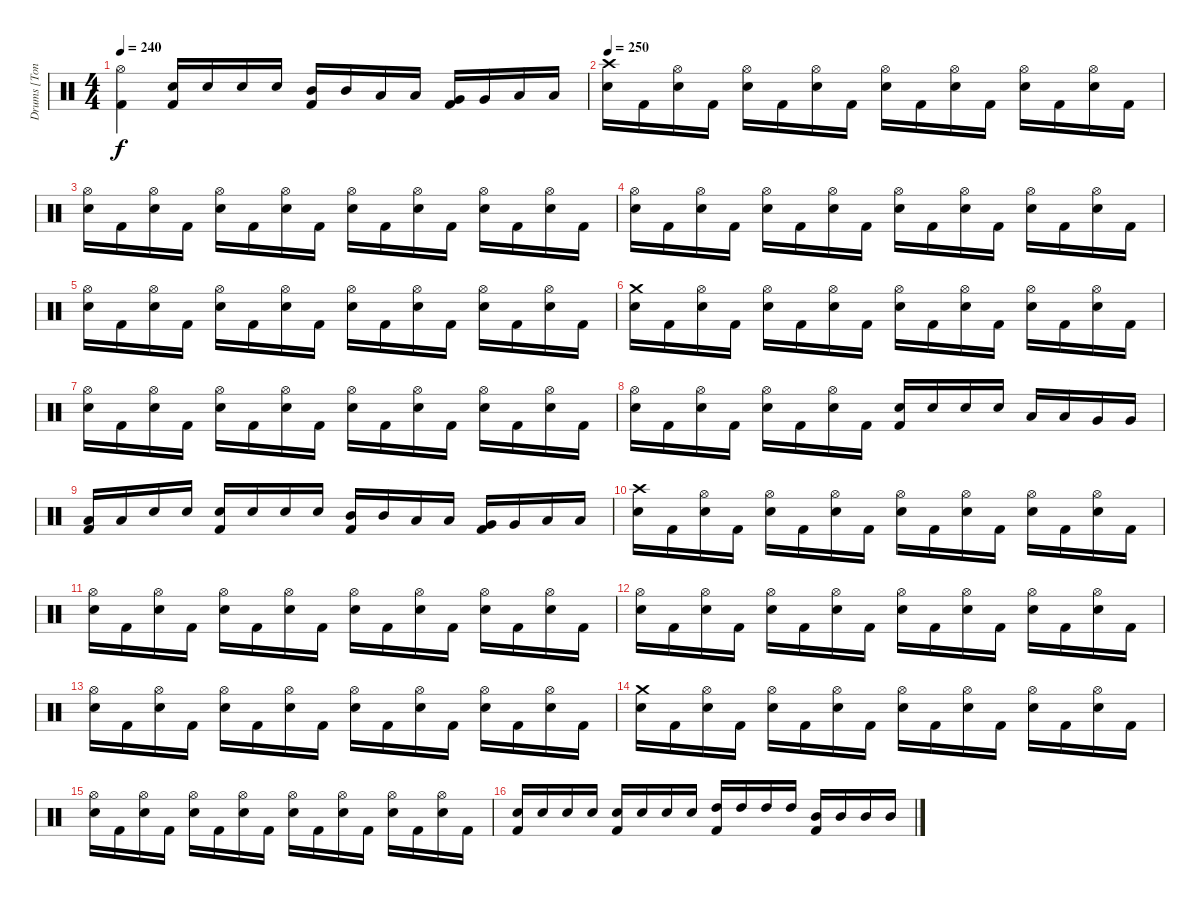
\track ("Drums [Tony Laureano]" "Drums [Ton") {instrument percussion}
\staff {score}
\articulation defaults
\ts (4 4)
\tempo 240
\clef neutral
\ks c
("Hi-Hat (open)" "Kick (hit) 2").4{dy f} ("Electric Snare (hit)" "Kick (hit) 2").16 "Electric Snare (hit)".16 "Electric Snare (hit)".16 "Electric Snare (hit)".16 ("Mid Tom (hit)" "Kick (hit) 2").16 "Mid Tom (hit)".16 "Low Tom (hit)".16 "Low Tom (hit)".16 ("Very Low Tom (hit)" "Kick (hit) 2").16 "Very Low Tom (hit)".16 "Low Floor Tom (hit)".16 "Low Floor Tom (hit)".16 |
\tempo 250
("Crash high (hit)" "Electric Snare (hit)").16 "Kick (hit) 2".16 ("Hi-Hat (open)" "Electric Snare (hit)").16 "Kick (hit) 2".16 ("Hi-Hat (open)" "Electric Snare (hit)").16 "Kick (hit) 2".16 ("Hi-Hat (open)" "Electric Snare (hit)").16 "Kick (hit) 2".16 ("Hi-Hat (open)" "Electric Snare (hit)").16 "Kick (hit) 2".16 ("Hi-Hat (open)" "Electric Snare (hit)").16 "Kick (hit) 2".16 ("Hi-Hat (open)" "Electric Snare (hit)").16 "Kick (hit) 2".16 ("Hi-Hat (open)" "Electric Snare (hit)").16 "Kick (hit) 2".16 |
("Hi-Hat (open)" "Electric Snare (hit)").16 "Kick (hit) 2".16 ("Hi-Hat (open)" "Electric Snare (hit)").16 "Kick (hit) 2".16 ("Hi-Hat (open)" "Electric Snare (hit)").16 "Kick (hit) 2".16 ("Hi-Hat (open)" "Electric Snare (hit)").16 "Kick (hit) 2".16 ("Hi-Hat (open)" "Electric Snare (hit)").16 "Kick (hit) 2".16 ("Hi-Hat (open)" "Electric Snare (hit)").16 "Kick (hit) 2".16 ("Hi-Hat (open)" "Electric Snare (hit)").16 "Kick (hit) 2".16 ("Hi-Hat (open)" "Electric Snare (hit)").16 "Kick (hit) 2".16 |
("Hi-Hat (open)" "Electric Snare (hit)").16 "Kick (hit) 2".16 ("Hi-Hat (open)" "Electric Snare (hit)").16 "Kick (hit) 2".16 ("Hi-Hat (open)" "Electric Snare (hit)").16 "Kick (hit) 2".16 ("Hi-Hat (open)" "Electric Snare (hit)").16 "Kick (hit) 2".16 ("Hi-Hat (open)" "Electric Snare (hit)").16 "Kick (hit) 2".16 ("Hi-Hat (open)" "Electric Snare (hit)").16 "Kick (hit) 2".16 ("Hi-Hat (open)" "Electric Snare (hit)").16 "Kick (hit) 2".16 ("Hi-Hat (open)" "Electric Snare (hit)").16 "Kick (hit) 2".16 |
("Hi-Hat (open)" "Electric Snare (hit)").16 "Kick (hit) 2".16 ("Hi-Hat (open)" "Electric Snare (hit)").16 "Kick (hit) 2".16 ("Hi-Hat (open)" "Electric Snare (hit)").16 "Kick (hit) 2".16 ("Hi-Hat (open)" "Electric Snare (hit)").16 "Kick (hit) 2".16 ("Hi-Hat (open)" "Electric Snare (hit)").16 "Kick (hit) 2".16 ("Hi-Hat (open)" "Electric Snare (hit)").16 "Kick (hit) 2".16 ("Hi-Hat (open)" "Electric Snare (hit)").16 "Kick (hit) 2".16 ("Hi-Hat (open)" "Electric Snare (hit)").16 "Kick (hit) 2".16 |
("Crash medium (hit)" "Electric Snare (hit)").16 "Kick (hit) 2".16 ("Hi-Hat (open)" "Electric Snare (hit)").16 "Kick (hit) 2".16 ("Hi-Hat (open)" "Electric Snare (hit)").16 "Kick (hit) 2".16 ("Hi-Hat (open)" "Electric Snare (hit)").16 "Kick (hit) 2".16 ("Hi-Hat (open)" "Electric Snare (hit)").16 "Kick (hit) 2".16 ("Hi-Hat (open)" "Electric Snare (hit)").16 "Kick (hit) 2".16 ("Hi-Hat (open)" "Electric Snare (hit)").16 "Kick (hit) 2".16 ("Hi-Hat (open)" "Electric Snare (hit)").16 "Kick (hit) 2".16 |
("Hi-Hat (open)" "Electric Snare (hit)").16 "Kick (hit) 2".16 ("Hi-Hat (open)" "Electric Snare (hit)").16 "Kick (hit) 2".16 ("Hi-Hat (open)" "Electric Snare (hit)").16 "Kick (hit) 2".16 ("Hi-Hat (open)" "Electric Snare (hit)").16 "Kick (hit) 2".16 ("Hi-Hat (open)" "Electric Snare (hit)").16 "Kick (hit) 2".16 ("Hi-Hat (open)" "Electric Snare (hit)").16 "Kick (hit) 2".16 ("Hi-Hat (open)" "Electric Snare (hit)").16 "Kick (hit) 2".16 ("Hi-Hat (open)" "Electric Snare (hit)").16 "Kick (hit) 2".16 |
("Hi-Hat (open)" "Electric Snare (hit)").16 "Kick (hit) 2".16 ("Hi-Hat (open)" "Electric Snare (hit)").16 "Kick (hit) 2".16 ("Hi-Hat (open)" "Electric Snare (hit)").16 "Kick (hit) 2".16 ("Hi-Hat (open)" "Electric Snare (hit)").16 "Kick (hit) 2".16 ("Electric Snare (hit)" "Kick (hit) 2").16 "Electric Snare (hit)".16 "Electric Snare (hit)".16 "Electric Snare (hit)".16 "Low Tom (hit)".16 "Low Tom (hit)".16 "Very Low Tom (hit)".16 "Very Low Tom (hit)".16 |
("Low Floor Tom (hit)" "Kick (hit) 2").16 "Low Floor Tom (hit)".16 "Electric Snare (hit)".16 "Electric Snare (hit)".16 ("Electric Snare (hit)" "Kick (hit) 2").16 "Electric Snare (hit)".16 "Electric Snare (hit)".16 "Electric Snare (hit)".16 ("Mid Tom (hit)" "Kick (hit) 2").16 "Mid Tom (hit)".16 "Low Tom (hit)".16 "Low Tom (hit)".16 ("Very Low Tom (hit)" "Kick (hit) 2").16 "Very Low Tom (hit)".16 "Low Floor Tom (hit)".16 "Low Floor Tom (hit)".16 |
("Crash high (hit)" "Electric Snare (hit)").16 "Kick (hit) 2".16 ("Hi-Hat (open)" "Electric Snare (hit)").16 "Kick (hit) 2".16 ("Hi-Hat (open)" "Electric Snare (hit)").16 "Kick (hit) 2".16 ("Hi-Hat (open)" "Electric Snare (hit)").16 "Kick (hit) 2".16 ("Hi-Hat (open)" "Electric Snare (hit)").16 "Kick (hit) 2".16 ("Hi-Hat (open)" "Electric Snare (hit)").16 "Kick (hit) 2".16 ("Hi-Hat (open)" "Electric Snare (hit)").16 "Kick (hit) 2".16 ("Hi-Hat (open)" "Electric Snare (hit)").16 "Kick (hit) 2".16 |
("Hi-Hat (open)" "Electric Snare (hit)").16 "Kick (hit) 2".16 ("Hi-Hat (open)" "Electric Snare (hit)").16 "Kick (hit) 2".16 ("Hi-Hat (open)" "Electric Snare (hit)").16 "Kick (hit) 2".16 ("Hi-Hat (open)" "Electric Snare (hit)").16 "Kick (hit) 2".16 ("Hi-Hat (open)" "Electric Snare (hit)").16 "Kick (hit) 2".16 ("Hi-Hat (open)" "Electric Snare (hit)").16 "Kick (hit) 2".16 ("Hi-Hat (open)" "Electric Snare (hit)").16 "Kick (hit) 2".16 ("Hi-Hat (open)" "Electric Snare (hit)").16 "Kick (hit) 2".16 |
("Hi-Hat (open)" "Electric Snare (hit)").16 "Kick (hit) 2".16 ("Hi-Hat (open)" "Electric Snare (hit)").16 "Kick (hit) 2".16 ("Hi-Hat (open)" "Electric Snare (hit)").16 "Kick (hit) 2".16 ("Hi-Hat (open)" "Electric Snare (hit)").16 "Kick (hit) 2".16 ("Hi-Hat (open)" "Electric Snare (hit)").16 "Kick (hit) 2".16 ("Hi-Hat (open)" "Electric Snare (hit)").16 "Kick (hit) 2".16 ("Hi-Hat (open)" "Electric Snare (hit)").16 "Kick (hit) 2".16 ("Hi-Hat (open)" "Electric Snare (hit)").16 "Kick (hit) 2".16 |
("Hi-Hat (open)" "Electric Snare (hit)").16 "Kick (hit) 2".16 ("Hi-Hat (open)" "Electric Snare (hit)").16 "Kick (hit) 2".16 ("Hi-Hat (open)" "Electric Snare (hit)").16 "Kick (hit) 2".16 ("Hi-Hat (open)" "Electric Snare (hit)").16 "Kick (hit) 2".16 ("Hi-Hat (open)" "Electric Snare (hit)").16 "Kick (hit) 2".16 ("Hi-Hat (open)" "Electric Snare (hit)").16 "Kick (hit) 2".16 ("Hi-Hat (open)" "Electric Snare (hit)").16 "Kick (hit) 2".16 ("Hi-Hat (open)" "Electric Snare (hit)").16 "Kick (hit) 2".16 |
("Crash medium (hit)" "Electric Snare (hit)").16 "Kick (hit) 2".16 ("Hi-Hat (open)" "Electric Snare (hit)").16 "Kick (hit) 2".16 ("Hi-Hat (open)" "Electric Snare (hit)").16 "Kick (hit) 2".16 ("Hi-Hat (open)" "Electric Snare (hit)").16 "Kick (hit) 2".16 ("Hi-Hat (open)" "Electric Snare (hit)").16 "Kick (hit) 2".16 ("Hi-Hat (open)" "Electric Snare (hit)").16 "Kick (hit) 2".16 ("Hi-Hat (open)" "Electric Snare (hit)").16 "Kick (hit) 2".16 ("Hi-Hat (open)" "Electric Snare (hit)").16 "Kick (hit) 2".16 |
("Hi-Hat (open)" "Electric Snare (hit)").16 "Kick (hit) 2".16 ("Hi-Hat (open)" "Electric Snare (hit)").16 "Kick (hit) 2".16 ("Hi-Hat (open)" "Electric Snare (hit)").16 "Kick (hit) 2".16 ("Hi-Hat (open)" "Electric Snare (hit)").16 "Kick (hit) 2".16 ("Hi-Hat (open)" "Electric Snare (hit)").16 "Kick (hit) 2".16 ("Hi-Hat (open)" "Electric Snare (hit)").16 "Kick (hit) 2".16 ("Hi-Hat (open)" "Electric Snare (hit)").16 "Kick (hit) 2".16 ("Hi-Hat (open)" "Electric Snare (hit)").16 "Kick (hit) 2".16 |
("Electric Snare (hit)" "Kick (hit) 2").16 "Electric Snare (hit)".16 "Electric Snare (hit)".16 "Electric Snare (hit)".16 ("Electric Snare (hit)" "Kick (hit) 2").16 "Electric Snare (hit)".16 "Electric Snare (hit)".16 "Electric Snare (hit)".16 ("High Tom (hit)" "Kick (hit) 2").16 "High Tom (hit)".16 "High Tom (hit)".16 "High Tom (hit)".16 ("Mid Tom (hit)" "Kick (hit) 2").16 "Mid Tom (hit)".16 "Mid Tom (hit)".16 "Mid Tom (hit)".16
